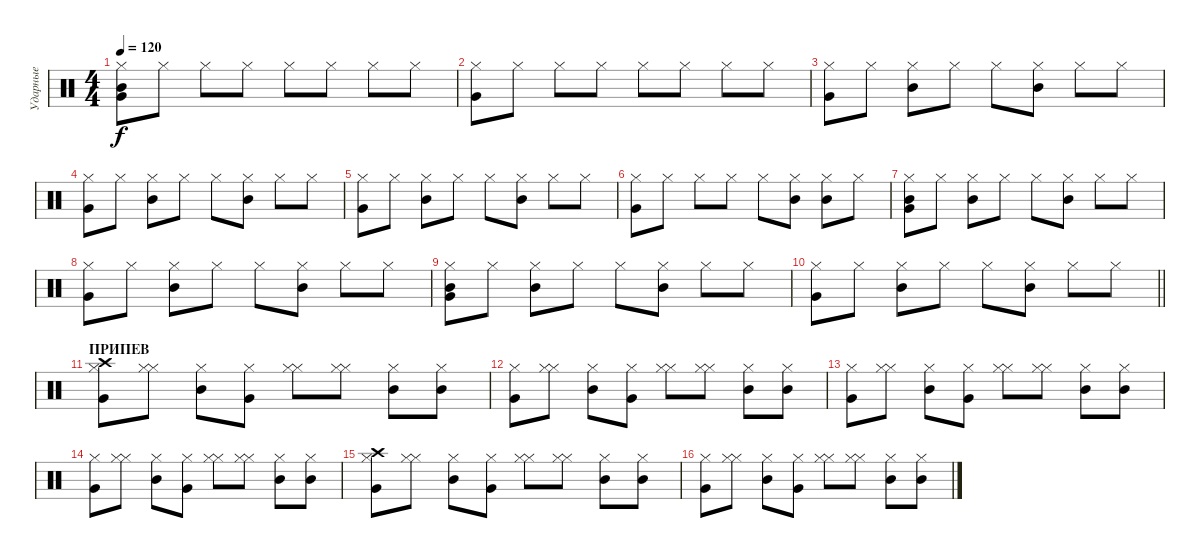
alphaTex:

\track ("Ударные" "Ударные") {instrument percussion}
\staff {score}
\articulation defaults
\ts (4 4)
\tempo 120
\clef neutral
\ks c
("Hi-Hat (closed)" "Mid Tom (hit)" "Very Low Tom (hit)").8{dy f} "Hi-Hat (closed)".8 "Hi-Hat (closed)".8 "Hi-Hat (closed)".8 "Hi-Hat (closed)".8 "Hi-Hat (closed)".8 "Hi-Hat (closed)".8 "Hi-Hat (closed)".8 |
("Hi-Hat (closed)" "Very Low Tom (hit)").8 "Hi-Hat (closed)".8 "Hi-Hat (closed)".8 "Hi-Hat (closed)".8 "Hi-Hat (closed)".8 "Hi-Hat (closed)".8 "Hi-Hat (closed)".8 "Hi-Hat (closed)".8 |
("Hi-Hat (closed)" "Very Low Tom (hit)").8 "Hi-Hat (closed)".8 ("Hi-Hat (closed)" "Mid Tom (hit)").8 "Hi-Hat (closed)".8 "Hi-Hat (closed)".8 ("Hi-Hat (closed)" "Mid Tom (hit)").8 "Hi-Hat (closed)".8 "Hi-Hat (closed)".8 |
("Hi-Hat (closed)" "Very Low Tom (hit)").8 "Hi-Hat (closed)".8 ("Hi-Hat (closed)" "Mid Tom (hit)").8 "Hi-Hat (closed)".8 "Hi-Hat (closed)".8 ("Hi-Hat (closed)" "Mid Tom (hit)").8 "Hi-Hat (closed)".8 "Hi-Hat (closed)".8 |
("Hi-Hat (closed)" "Very Low Tom (hit)").8 "Hi-Hat (closed)".8 ("Hi-Hat (closed)" "Mid Tom (hit)").8 "Hi-Hat (closed)".8 "Hi-Hat (closed)".8 ("Hi-Hat (closed)" "Mid Tom (hit)").8 "Hi-Hat (closed)".8 "Hi-Hat (closed)".8 |
("Hi-Hat (closed)" "Very Low Tom (hit)").8 "Hi-Hat (closed)".8 "Hi-Hat (closed)".8 "Hi-Hat (closed)".8 "Hi-Hat (closed)".8 ("Hi-Hat (closed)" "Mid Tom (hit)").8 ("Hi-Hat (closed)" "Mid Tom (hit)").8 "Hi-Hat (closed)".8 |
("Hi-Hat (closed)" "Mid Tom (hit)" "Very Low Tom (hit)").8 "Hi-Hat (closed)".8 ("Hi-Hat (closed)" "Mid Tom (hit)").8 "Hi-Hat (closed)".8 "Hi-Hat (closed)".8 ("Hi-Hat (closed)" "Mid Tom (hit)").8 "Hi-Hat (closed)".8 "Hi-Hat (closed)".8 |
("Hi-Hat (closed)" "Very Low Tom (hit)").8 "Hi-Hat (closed)".8 ("Hi-Hat (closed)" "Mid Tom (hit)").8 "Hi-Hat (closed)".8 "Hi-Hat (closed)".8 ("Hi-Hat (closed)" "Mid Tom (hit)").8 "Hi-Hat (closed)".8 "Hi-Hat (closed)".8 |
("Hi-Hat (closed)" "Mid Tom (hit)" "Very Low Tom (hit)").8 "Hi-Hat (closed)".8 ("Hi-Hat (closed)" "Mid Tom (hit)").8 "Hi-Hat (closed)".8 "Hi-Hat (closed)".8 ("Hi-Hat (closed)" "Mid Tom (hit)").8 "Hi-Hat (closed)".8 "Hi-Hat (closed)".8 |
\barLineRight lightlight
("Hi-Hat (closed)" "Very Low Tom (hit)").8 "Hi-Hat (closed)".8 ("Hi-Hat (closed)" "Mid Tom (hit)").8 "Hi-Hat (closed)".8 "Hi-Hat (closed)".8 ("Hi-Hat (closed)" "Mid Tom (hit)").8 "Hi-Hat (closed)".8 "Hi-Hat (closed)".8 |
\section ("" "ПРИПЕВ")
("Hi-Hat (closed)" "Crash high (hit)" "Very Low Tom (hit)").8 ("Hi-Hat (closed)" "Hi-Hat (closed)").8 ("Hi-Hat (closed)" "Mid Tom (hit)").8 ("Hi-Hat (closed)" "Very Low Tom (hit)").8 ("Hi-Hat (closed)" "Hi-Hat (closed)").8 ("Hi-Hat (closed)" "Hi-Hat (closed)").8 ("Hi-Hat (closed)" "Mid Tom (hit)").8 ("Hi-Hat (closed)" "Mid Tom (hit)").8 |
("Hi-Hat (closed)" "Very Low Tom (hit)").8 ("Hi-Hat (closed)" "Hi-Hat (closed)").8 ("Hi-Hat (closed)" "Mid Tom (hit)").8 ("Hi-Hat (closed)" "Very Low Tom (hit)").8 ("Hi-Hat (closed)" "Hi-Hat (closed)").8 ("Hi-Hat (closed)" "Hi-Hat (closed)").8 ("Hi-Hat (closed)" "Mid Tom (hit)").8 ("Hi-Hat (closed)" "Mid Tom (hit)").8 |
("Hi-Hat (closed)" "Very Low Tom (hit)").8 ("Hi-Hat (closed)" "Hi-Hat (closed)").8 ("Hi-Hat (closed)" "Mid Tom (hit)").8 ("Hi-Hat (closed)" "Very Low Tom (hit)").8 ("Hi-Hat (closed)" "Hi-Hat (closed)").8 ("Hi-Hat (closed)" "Hi-Hat (closed)").8 ("Hi-Hat (closed)" "Mid Tom (hit)").8 ("Hi-Hat (closed)" "Mid Tom (hit)").8 |
("Hi-Hat (closed)" "Very Low Tom (hit)").8 ("Hi-Hat (closed)" "Hi-Hat (closed)").8 ("Hi-Hat (closed)" "Mid Tom (hit)").8 ("Hi-Hat (closed)" "Very Low Tom (hit)").8 ("Hi-Hat (closed)" "Hi-Hat (closed)").8 ("Hi-Hat (closed)" "Hi-Hat (closed)").8 ("Hi-Hat (closed)" "Mid Tom (hit)").8 ("Hi-Hat (closed)" "Mid Tom (hit)").8 |
("Hi-Hat (closed)" "Crash high (hit)" "Very Low Tom (hit)").8 ("Hi-Hat (closed)" "Hi-Hat (closed)").8 ("Hi-Hat (closed)" "Mid Tom (hit)").8 ("Hi-Hat (closed)" "Very Low Tom (hit)").8 ("Hi-Hat (closed)" "Hi-Hat (closed)").8 ("Hi-Hat (closed)" "Hi-Hat (closed)").8 ("Hi-Hat (closed)" "Mid Tom (hit)").8 ("Hi-Hat (closed)" "Mid Tom (hit)").8 |
("Hi-Hat (closed)" "Very Low Tom (hit)").8 ("Hi-Hat (closed)" "Hi-Hat (closed)").8 ("Hi-Hat (closed)" "Mid Tom (hit)").8 ("Hi-Hat (closed)" "Very Low Tom (hit)").8 ("Hi-Hat (closed)" "Hi-Hat (closed)").8 ("Hi-Hat (closed)" "Hi-Hat (closed)").8 ("Hi-Hat (closed)" "Mid Tom (hit)").8 ("Hi-Hat (closed)" "Mid Tom (hit)").8
